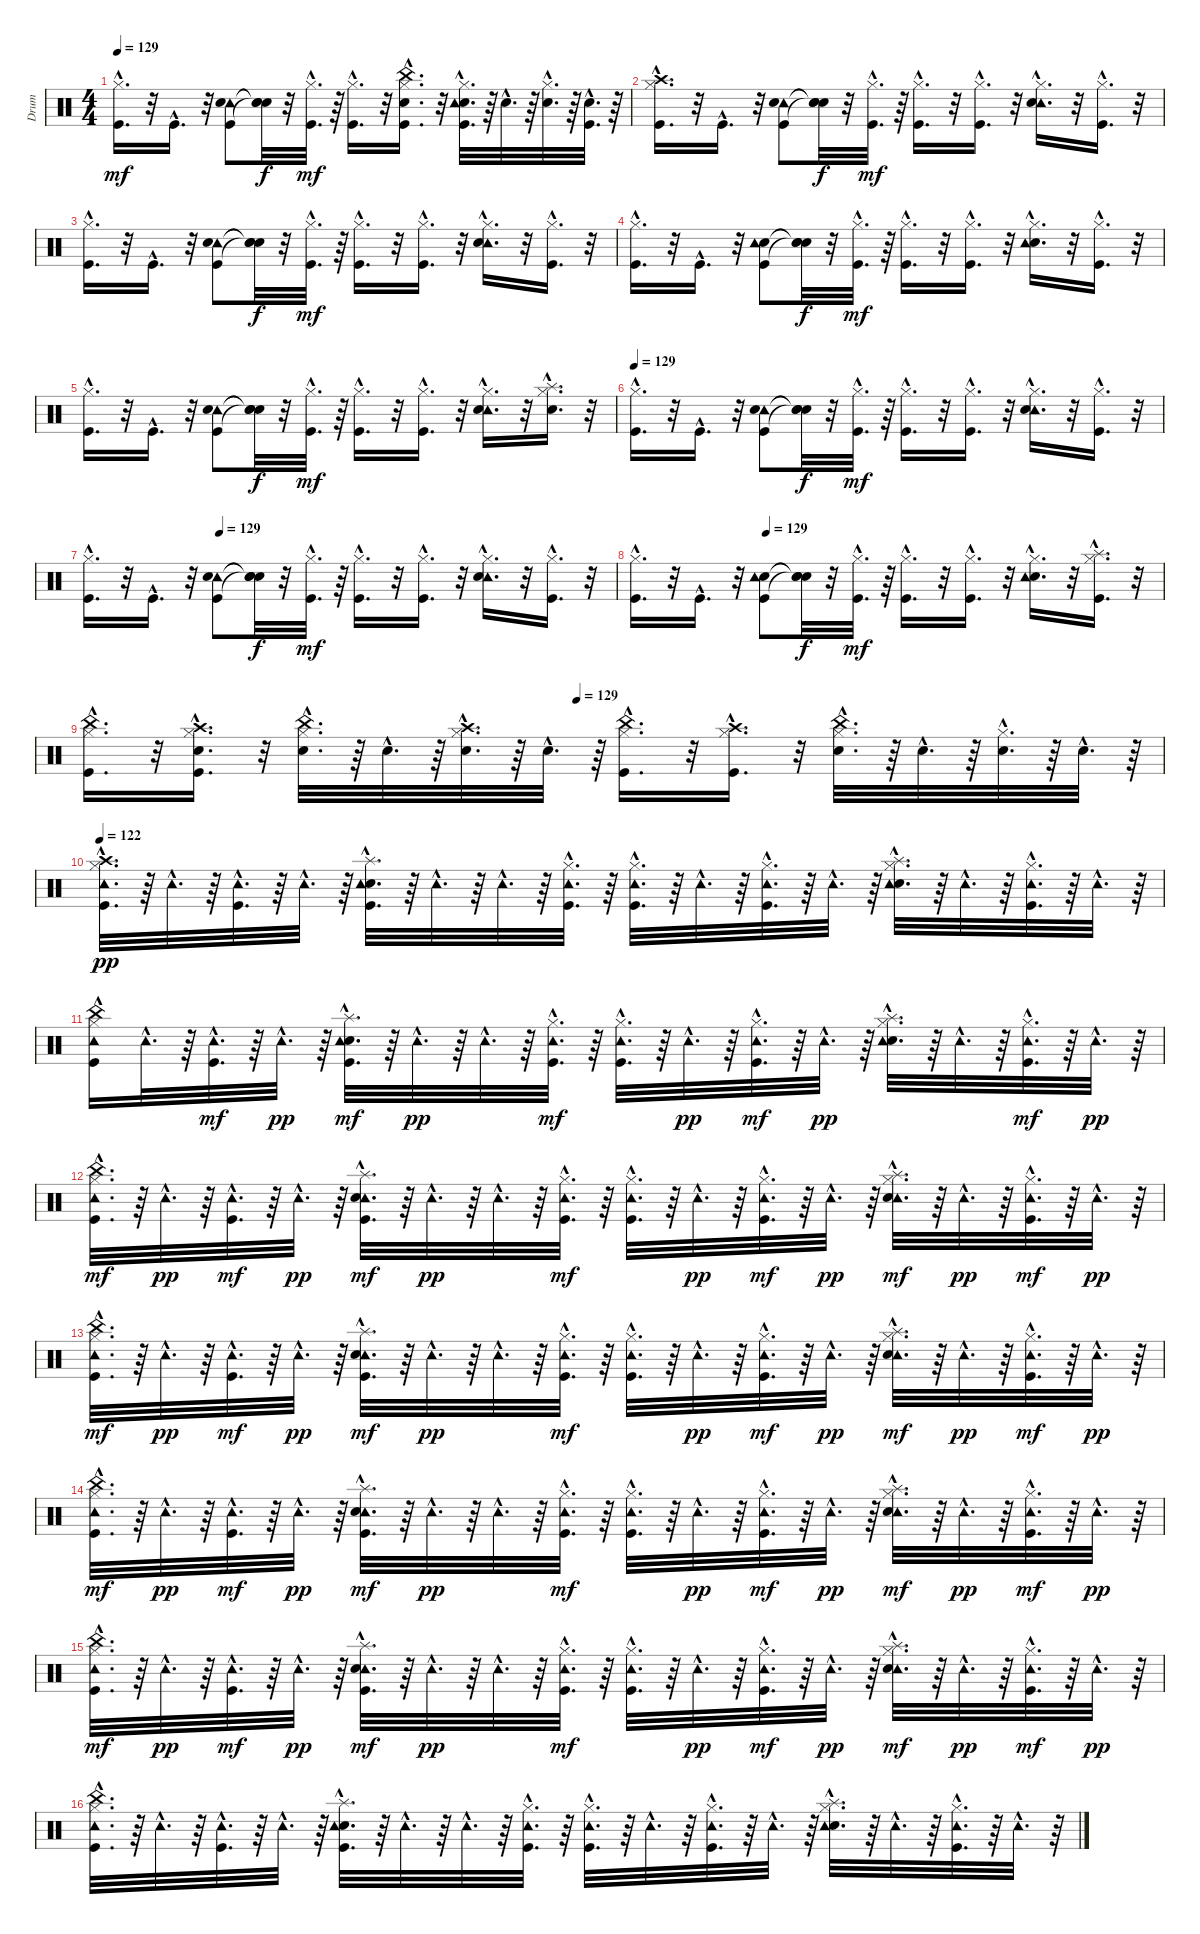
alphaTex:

\track ("Drum" "Drum") {instrument percussion}
\staff {score}
\articulation defaults
\ts (4 4)
\tempo 129
\clef neutral
\ks c
("Hi-Hat (closed)"{hac} "Kick (hit)"{hac}).16{d dy mf} r.32 "Kick (hit)"{hac}.16{d} r.32 ("Tambourine (hit)" "Kick (hit)" "Snare (hit) 2").8 ("Snare (hit)"{t} "Snare (hit)"{t} "Snare (hit)"{t}).32{dy f} r.32 ("Kick (hit)"{hac} "Hi-Hat (closed)"{hac}).32{d dy mf} r.64 ("Kick (hit)"{hac} "Hi-Hat (closed)"{hac}).16{d} r.32 ("China (hit)"{hac} "Snare (hit) 2"{hac} "Kick (hit)"{hac} "Hi-Hat (closed)"{hac}).16{d} r.32 ("Snare (hit) 2"{hac} "Kick (hit)"{hac} "Tambourine (hit)"{hac} "Hi-Hat (closed)"{hac}).32{d} r.64 "Snare (hit) 2"{hac}.32{d} r.64 ("Snare (hit) 2"{hac} "Hi-Hat (closed)"{hac}).32{d} r.64 ("Snare (hit) 2"{hac} "Kick (hit)"{hac}).32{d} r.64 |
("Crash high (hit)"{hac} "Hi-Hat (closed)"{hac} "Kick (hit)"{hac}).16{d} r.32 "Kick (hit)"{hac}.16{d} r.32 ("Tambourine (hit)" "Kick (hit)" "Snare (hit) 2").8 ("Snare (hit)"{t} "Snare (hit)"{t} "Snare (hit)"{t}).32{dy f} r.32 ("Kick (hit)"{hac} "Hi-Hat (closed)"{hac}).32{d dy mf} r.64 ("Kick (hit)"{hac} "Hi-Hat (closed)"{hac}).16{d} r.32 ("Kick (hit)"{hac} "Hi-Hat (closed)"{hac}).16{d} r.32 ("Tambourine (hit)"{hac} "Snare (hit) 2"{hac} "Hi-Hat (closed)"{hac}).16{d} r.32 ("Kick (hit)"{hac} "Hi-Hat (closed)"{hac}).16{d} r.32 |
("Hi-Hat (closed)"{hac} "Kick (hit)"{hac}).16{d} r.32 "Kick (hit)"{hac}.16{d} r.32 ("Tambourine (hit)" "Kick (hit)" "Snare (hit) 2").8 ("Snare (hit)"{t} "Snare (hit)"{t} "Snare (hit)"{t}).32{dy f} r.32 ("Kick (hit)"{hac} "Hi-Hat (closed)"{hac}).32{d dy mf} r.64 ("Kick (hit)"{hac} "Hi-Hat (closed)"{hac}).16{d} r.32 ("Kick (hit)"{hac} "Hi-Hat (closed)"{hac}).16{d} r.32 ("Tambourine (hit)"{hac} "Snare (hit) 2"{hac} "Hi-Hat (closed)"{hac}).16{d} r.32 ("Kick (hit)"{hac} "Hi-Hat (closed)"{hac}).16{d} r.32 |
("Kick (hit)"{hac} "Hi-Hat (closed)"{hac}).16{d} r.32 "Kick (hit)"{hac}.16{d} r.32 ("Snare (hit) 2" "Kick (hit)" "Tambourine (hit)").8 ("Snare (hit)"{t} "Snare (hit)"{t} "Snare (hit)"{t}).32{dy f} r.32 ("Hi-Hat (closed)"{hac} "Kick (hit)"{hac}).32{d dy mf} r.64 ("Hi-Hat (closed)"{hac} "Kick (hit)"{hac}).16{d} r.32 ("Hi-Hat (closed)"{hac} "Kick (hit)"{hac}).16{d} r.32 ("Hi-Hat (closed)"{hac} "Snare (hit) 2"{hac} "Tambourine (hit)"{hac}).16{d} r.32 ("Hi-Hat (closed)"{hac} "Kick (hit)"{hac}).16{d} r.32 |
("Hi-Hat (closed)"{hac} "Kick (hit)"{hac}).16{d} r.32 "Kick (hit)"{hac}.16{d} r.32 ("Tambourine (hit)" "Kick (hit)" "Snare (hit) 2").8 ("Snare (hit)"{t} "Snare (hit)"{t} "Snare (hit)"{t}).32{dy f} r.32 ("Kick (hit)"{hac} "Hi-Hat (closed)"{hac}).32{d dy mf} r.64 ("Kick (hit)"{hac} "Hi-Hat (closed)"{hac}).16{d} r.32 ("Kick (hit)"{hac} "Hi-Hat (closed)"{hac}).16{d} r.32 ("Tambourine (hit)"{hac} "Snare (hit) 2"{hac} "Hi-Hat (closed)"{hac}).16{d} r.32 ("Splash (hit)"{hac} "Hi-Hat (closed)"{hac} "Snare (hit) 2"{hac}).16{d} r.32 |
\tempo 129
("Hi-Hat (closed)"{hac} "Kick (hit)"{hac}).16{d} r.32 "Kick (hit)"{hac}.16{d} r.32 ("Tambourine (hit)" "Kick (hit)" "Snare (hit) 2").8 ("Snare (hit)"{t} "Snare (hit)"{t} "Snare (hit)"{t}).32{dy f} r.32 ("Kick (hit)"{hac} "Hi-Hat (closed)"{hac}).32{d dy mf} r.64 ("Kick (hit)"{hac} "Hi-Hat (closed)"{hac}).16{d} r.32 ("Kick (hit)"{hac} "Hi-Hat (closed)"{hac}).16{d} r.32 ("Tambourine (hit)"{hac} "Snare (hit) 2"{hac} "Hi-Hat (closed)"{hac}).16{d} r.32 ("Kick (hit)"{hac} "Hi-Hat (closed)"{hac}).16{d} r.32 |
\tempo (129 0.25)
("Hi-Hat (closed)"{hac} "Kick (hit)"{hac}).16{d} r.32 "Kick (hit)"{hac}.16{d} r.32 ("Tambourine (hit)" "Kick (hit)" "Snare (hit) 2").8 ("Snare (hit)"{t} "Snare (hit)"{t} "Snare (hit)"{t}).32{dy f} r.32 ("Kick (hit)"{hac} "Hi-Hat (closed)"{hac}).32{d dy mf} r.64 ("Kick (hit)"{hac} "Hi-Hat (closed)"{hac}).16{d} r.32 ("Kick (hit)"{hac} "Hi-Hat (closed)"{hac}).16{d} r.32 ("Tambourine (hit)"{hac} "Snare (hit) 2"{hac} "Hi-Hat (closed)"{hac}).16{d} r.32 ("Kick (hit)"{hac} "Hi-Hat (closed)"{hac}).16{d} r.32 |
\tempo (129 0.25)
("Kick (hit)"{hac} "Hi-Hat (closed)"{hac}).16{d} r.32 "Kick (hit)"{hac}.16{d} r.32 ("Snare (hit) 2" "Kick (hit)" "Tambourine (hit)").8 ("Snare (hit)"{t} "Snare (hit)"{t} "Snare (hit)"{t}).32{dy f} r.32 ("Hi-Hat (closed)"{hac} "Kick (hit)"{hac}).32{d dy mf} r.64 ("Hi-Hat (closed)"{hac} "Kick (hit)"{hac}).16{d} r.32 ("Hi-Hat (closed)"{hac} "Kick (hit)"{hac}).16{d} r.32 ("Hi-Hat (closed)"{hac} "Snare (hit) 2"{hac} "Tambourine (hit)"{hac}).16{d} r.32 ("Splash (hit)"{hac} "Hi-Hat (closed)"{hac} "Kick (hit)"{hac}).16{d} r.32 |
\tempo (129 0.453125)
("China (hit)"{hac} "Hi-Hat (closed)"{hac} "Kick (hit)"{hac}).16{d} r.32 ("Crash high (hit)"{hac} "Snare (hit) 2"{hac} "Kick (hit)"{hac} "Hi-Hat (closed)"{hac}).16{d} r.32 ("China (hit)"{hac} "Hi-Hat (closed)"{hac} "Snare (hit) 2"{hac}).32{d} r.64 "Snare (hit) 2"{hac}.32{d} r.64 ("Crash high (hit)"{hac} "Hi-Hat (closed)"{hac} "Snare (hit) 2"{hac}).32{d} r.64 "Snare (hit) 2"{hac}.32{d} r.64 ("China (hit)"{hac} "Kick (hit)"{hac} "Hi-Hat (closed)"{hac}).16{d} r.32 ("Crash high (hit)"{hac} "Kick (hit)"{hac} "Hi-Hat (closed)"{hac}).16{d} r.32 ("China (hit)"{hac} "Hi-Hat (closed)"{hac} "Snare (hit) 2"{hac}).32{d} r.64 "Snare (hit) 2"{hac}.32{d} r.64 ("Hi-Hat (closed)"{hac} "Snare (hit) 2"{hac}).32{d} r.64 "Snare (hit) 2"{hac}.32{d} r.64 |
\tempo 122
("Crash high (hit)"{hac} "Kick (hit)"{hac} "Hi-Hat (closed)"{hac} "Tambourine (hit)"{hac}).32{d dy pp} r.64 "Tambourine (hit)"{hac}.32{d} r.64 ("Kick (hit)"{hac} "Tambourine (hit)"{hac}).32{d} r.64 "Tambourine (hit)"{hac}.32{d} r.64 ("Splash (hit)"{hac} "Snare (hit) 2"{hac} "Kick (hit)"{hac} "Tambourine (hit)"{hac}).32{d} r.64 "Tambourine (hit)"{hac}.32{d} r.64 "Tambourine (hit)"{hac}.32{d} r.64 ("Kick (hit)"{hac} "Hi-Hat (closed)"{hac} "Tambourine (hit)"{hac}).32{d} r.64 ("Kick (hit)"{hac} "Hi-Hat (closed)"{hac} "Tambourine (hit)"{hac}).32{d} r.64 "Tambourine (hit)"{hac}.32{d} r.64 ("Kick (hit)"{hac} "Hi-Hat (closed)"{hac} "Tambourine (hit)"{hac}).32{d} r.64 "Tambourine (hit)"{hac}.32{d} r.64 ("Splash (hit)"{hac} "Snare (hit) 2"{hac} "Hi-Hat (closed)"{hac} "Tambourine (hit)"{hac}).32{d} r.64 "Tambourine (hit)"{hac}.32{d} r.64 ("Kick (hit)"{hac} "Hi-Hat (closed)"{hac} "Tambourine (hit)"{hac}).32{d} r.64 "Tambourine (hit)"{hac}.32{d} r.64 |
("Kick (hit)"{hac} "China (hit)"{hac} "Hi-Hat (closed)"{hac} "Tambourine (hit)"{hac}).16 "Tambourine (hit)"{hac}.32{d} r.64 ("Tambourine (hit)"{hac} "Kick (hit)"{hac}).32{d dy mf} r.64 "Tambourine (hit)"{hac}.32{d dy pp} r.64 ("Splash (hit)"{hac} "Snare (hit) 2"{hac} "Tambourine (hit)"{hac} "Kick (hit)"{hac}).32{d dy mf} r.64 "Tambourine (hit)"{hac}.32{d dy pp} r.64 "Tambourine (hit)"{hac}.32{d} r.64 ("Kick (hit)"{hac} "Tambourine (hit)"{hac} "Hi-Hat (closed)"{hac}).32{d dy mf} r.64 ("Tambourine (hit)"{hac} "Hi-Hat (closed)"{hac} "Kick (hit)"{hac}).32{d} r.64 "Tambourine (hit)"{hac}.32{d dy pp} r.64 ("Tambourine (hit)"{hac} "Hi-Hat (closed)"{hac} "Kick (hit)"{hac}).32{d dy mf} r.64 "Tambourine (hit)"{hac}.32{d dy pp} r.64 ("Splash (hit)"{hac} "Snare (hit) 2"{hac} "Hi-Hat (closed)"{hac} "Tambourine (hit)"{hac}).32{d} r.64 "Tambourine (hit)"{hac}.32{d} r.64 ("Tambourine (hit)"{hac} "Hi-Hat (closed)"{hac} "Kick (hit)"{hac}).32{d dy mf} r.64 "Tambourine (hit)"{hac}.32{d dy pp} r.64 |
("China (hit)"{hac} "Tambourine (hit)"{hac} "Hi-Hat (closed)"{hac} "Kick (hit)"{hac}).32{d dy mf} r.64 "Tambourine (hit)"{hac}.32{d dy pp} r.64 ("Tambourine (hit)"{hac} "Kick (hit)"{hac}).32{d dy mf} r.64 "Tambourine (hit)"{hac}.32{d dy pp} r.64 ("Tambourine (hit)"{hac} "Kick (hit)"{hac} "Snare (hit) 2"{hac} "Splash (hit)"{hac}).32{d dy mf} r.64 "Tambourine (hit)"{hac}.32{d dy pp} r.64 "Tambourine (hit)"{hac}.32{d} r.64 ("Tambourine (hit)"{hac} "Hi-Hat (closed)"{hac} "Kick (hit)"{hac}).32{d dy mf} r.64 ("Tambourine (hit)"{hac} "Hi-Hat (closed)"{hac} "Kick (hit)"{hac}).32{d} r.64 "Tambourine (hit)"{hac}.32{d dy pp} r.64 ("Tambourine (hit)"{hac} "Hi-Hat (closed)"{hac} "Kick (hit)"{hac}).32{d dy mf} r.64 "Tambourine (hit)"{hac}.32{d dy pp} r.64 ("Tambourine (hit)"{hac} "Hi-Hat (closed)"{hac} "Snare (hit) 2"{hac} "Splash (hit)"{hac}).32{d dy mf} r.64 "Tambourine (hit)"{hac}.32{d dy pp} r.64 ("Tambourine (hit)"{hac} "Hi-Hat (closed)"{hac} "Kick (hit)"{hac}).32{d dy mf} r.64 "Tambourine (hit)"{hac}.32{d dy pp} r.64 |
("China (hit)"{hac} "Tambourine (hit)"{hac} "Hi-Hat (closed)"{hac} "Kick (hit)"{hac}).32{d dy mf} r.64 "Tambourine (hit)"{hac}.32{d dy pp} r.64 ("Tambourine (hit)"{hac} "Kick (hit)"{hac}).32{d dy mf} r.64 "Tambourine (hit)"{hac}.32{d dy pp} r.64 ("Tambourine (hit)"{hac} "Kick (hit)"{hac} "Snare (hit) 2"{hac} "Splash (hit)"{hac}).32{d dy mf} r.64 "Tambourine (hit)"{hac}.32{d dy pp} r.64 "Tambourine (hit)"{hac}.32{d} r.64 ("Tambourine (hit)"{hac} "Hi-Hat (closed)"{hac} "Kick (hit)"{hac}).32{d dy mf} r.64 ("Tambourine (hit)"{hac} "Hi-Hat (closed)"{hac} "Kick (hit)"{hac}).32{d} r.64 "Tambourine (hit)"{hac}.32{d dy pp} r.64 ("Tambourine (hit)"{hac} "Hi-Hat (closed)"{hac} "Kick (hit)"{hac}).32{d dy mf} r.64 "Tambourine (hit)"{hac}.32{d dy pp} r.64 ("Tambourine (hit)"{hac} "Hi-Hat (closed)"{hac} "Snare (hit) 2"{hac} "Splash (hit)"{hac}).32{d dy mf} r.64 "Tambourine (hit)"{hac}.32{d dy pp} r.64 ("Tambourine (hit)"{hac} "Hi-Hat (closed)"{hac} "Kick (hit)"{hac}).32{d dy mf} r.64 "Tambourine (hit)"{hac}.32{d dy pp} r.64 |
("China (hit)"{hac} "Tambourine (hit)"{hac} "Hi-Hat (closed)"{hac} "Kick (hit)"{hac}).32{d dy mf} r.64 "Tambourine (hit)"{hac}.32{d dy pp} r.64 ("Tambourine (hit)"{hac} "Kick (hit)"{hac}).32{d dy mf} r.64 "Tambourine (hit)"{hac}.32{d dy pp} r.64 ("Tambourine (hit)"{hac} "Kick (hit)"{hac} "Snare (hit) 2"{hac} "Splash (hit)"{hac}).32{d dy mf} r.64 "Tambourine (hit)"{hac}.32{d dy pp} r.64 "Tambourine (hit)"{hac}.32{d} r.64 ("Tambourine (hit)"{hac} "Hi-Hat (closed)"{hac} "Kick (hit)"{hac}).32{d dy mf} r.64 ("Tambourine (hit)"{hac} "Hi-Hat (closed)"{hac} "Kick (hit)"{hac}).32{d} r.64 "Tambourine (hit)"{hac}.32{d dy pp} r.64 ("Tambourine (hit)"{hac} "Hi-Hat (closed)"{hac} "Kick (hit)"{hac}).32{d dy mf} r.64 "Tambourine (hit)"{hac}.32{d dy pp} r.64 ("Tambourine (hit)"{hac} "Hi-Hat (closed)"{hac} "Snare (hit) 2"{hac} "Splash (hit)"{hac}).32{d dy mf} r.64 "Tambourine (hit)"{hac}.32{d dy pp} r.64 ("Tambourine (hit)"{hac} "Hi-Hat (closed)"{hac} "Kick (hit)"{hac}).32{d dy mf} r.64 "Tambourine (hit)"{hac}.32{d dy pp} r.64 |
("China (hit)"{hac} "Tambourine (hit)"{hac} "Hi-Hat (closed)"{hac} "Kick (hit)"{hac}).32{d dy mf} r.64 "Tambourine (hit)"{hac}.32{d dy pp} r.64 ("Tambourine (hit)"{hac} "Kick (hit)"{hac}).32{d dy mf} r.64 "Tambourine (hit)"{hac}.32{d dy pp} r.64 ("Tambourine (hit)"{hac} "Kick (hit)"{hac} "Snare (hit) 2"{hac} "Splash (hit)"{hac}).32{d dy mf} r.64 "Tambourine (hit)"{hac}.32{d dy pp} r.64 "Tambourine (hit)"{hac}.32{d} r.64 ("Tambourine (hit)"{hac} "Hi-Hat (closed)"{hac} "Kick (hit)"{hac}).32{d dy mf} r.64 ("Tambourine (hit)"{hac} "Hi-Hat (closed)"{hac} "Kick (hit)"{hac}).32{d} r.64 "Tambourine (hit)"{hac}.32{d dy pp} r.64 ("Tambourine (hit)"{hac} "Hi-Hat (closed)"{hac} "Kick (hit)"{hac}).32{d dy mf} r.64 "Tambourine (hit)"{hac}.32{d dy pp} r.64 ("Tambourine (hit)"{hac} "Hi-Hat (closed)"{hac} "Snare (hit) 2"{hac} "Splash (hit)"{hac}).32{d dy mf} r.64 "Tambourine (hit)"{hac}.32{d dy pp} r.64 ("Tambourine (hit)"{hac} "Hi-Hat (closed)"{hac} "Kick (hit)"{hac}).32{d dy mf} r.64 "Tambourine (hit)"{hac}.32{d dy pp} r.64 |
("China (hit)"{hac} "Kick (hit)"{hac} "Hi-Hat (closed)"{hac} "Tambourine (hit)"{hac}).32{d} r.64 "Tambourine (hit)"{hac}.32{d} r.64 ("Kick (hit)"{hac} "Tambourine (hit)"{hac}).32{d} r.64 "Tambourine (hit)"{hac}.32{d} r.64 ("Splash (hit)"{hac} "Snare (hit) 2"{hac} "Kick (hit)"{hac} "Tambourine (hit)"{hac}).32{d} r.64 "Tambourine (hit)"{hac}.32{d} r.64 "Tambourine (hit)"{hac}.32{d} r.64 ("Kick (hit)"{hac} "Hi-Hat (closed)"{hac} "Tambourine (hit)"{hac}).32{d} r.64 ("Kick (hit)"{hac} "Hi-Hat (closed)"{hac} "Tambourine (hit)"{hac}).32{d} r.64 "Tambourine (hit)"{hac}.32{d} r.64 ("Kick (hit)"{hac} "Hi-Hat (closed)"{hac} "Tambourine (hit)"{hac}).32{d} r.64 "Tambourine (hit)"{hac}.32{d} r.64 ("Splash (hit)"{hac} "Snare (hit) 2"{hac} "Hi-Hat (closed)"{hac} "Tambourine (hit)"{hac}).32{d} r.64 "Tambourine (hit)"{hac}.32{d} r.64 ("Kick (hit)"{hac} "Hi-Hat (closed)"{hac} "Tambourine (hit)"{hac}).32{d} r.64 "Tambourine (hit)"{hac}.32{d} r.64
